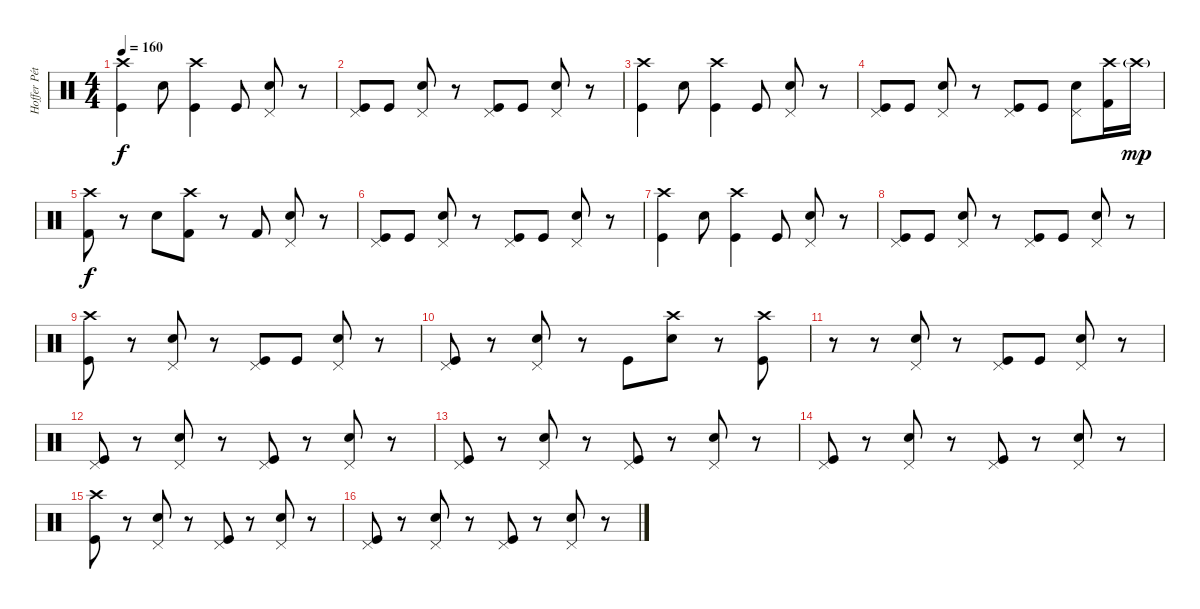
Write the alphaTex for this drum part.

\track ("Hoffer Péter" "Hoffer Pét") {instrument percussion}
\staff {score}
\articulation defaults
\ts (4 4)
\tempo 160
\clef neutral
\ks c
("Crash high (hit)" "Kick (hit)").4{dy f} "Electric Snare (hit)".8 ("Crash high (hit)" "Kick (hit)").4 "Kick (hit)".8 ("Pedal Hi-Hat (hit)" "Electric Snare (hit)").8 r.8 |
("Pedal Hi-Hat (hit)" "Kick (hit)").8 "Kick (hit)".8 ("Pedal Hi-Hat (hit)" "Electric Snare (hit)").8 r.8 ("Pedal Hi-Hat (hit)" "Kick (hit)").8 "Kick (hit)".8 ("Pedal Hi-Hat (hit)" "Electric Snare (hit)").8 r.8 |
("Crash high (hit)" "Kick (hit)").4 "Electric Snare (hit)".8 ("Crash high (hit)" "Kick (hit)").4 "Kick (hit)".8 ("Pedal Hi-Hat (hit)" "Electric Snare (hit)").8 r.8 |
("Pedal Hi-Hat (hit)" "Kick (hit)").8 "Kick (hit)".8 ("Pedal Hi-Hat (hit)" "Electric Snare (hit)").8 r.8 ("Pedal Hi-Hat (hit)" "Kick (hit)").8 "Kick (hit)".8 ("Pedal Hi-Hat (hit)" "Electric Snare (hit)").8 ("Crash high (hit)" "Kick (hit) 2").16 "Crash high (hit)"{g}.16{dy mp} |
("Crash high (hit)" "Kick (hit) 2").8{dy f} r.8 "Electric Snare (hit)".8 ("Crash high (hit)" "Kick (hit) 2").8 r.8 "Kick (hit) 2".8 ("Pedal Hi-Hat (hit)" "Electric Snare (hit)").8 r.8 |
("Pedal Hi-Hat (hit)" "Kick (hit)").8 "Kick (hit)".8 ("Pedal Hi-Hat (hit)" "Electric Snare (hit)").8 r.8 ("Pedal Hi-Hat (hit)" "Kick (hit)").8 "Kick (hit)".8 ("Pedal Hi-Hat (hit)" "Electric Snare (hit)").8 r.8 |
("Crash high (hit)" "Kick (hit)").4 "Electric Snare (hit)".8 ("Crash high (hit)" "Kick (hit)").4 "Kick (hit)".8 ("Pedal Hi-Hat (hit)" "Electric Snare (hit)").8 r.8 |
("Pedal Hi-Hat (hit)" "Kick (hit)").8 "Kick (hit)".8 ("Pedal Hi-Hat (hit)" "Electric Snare (hit)").8 r.8 ("Pedal Hi-Hat (hit)" "Kick (hit)").8 "Kick (hit)".8 ("Pedal Hi-Hat (hit)" "Electric Snare (hit)").8 r.8 |
("Crash high (hit)" "Kick (hit)").8 r.8 ("Pedal Hi-Hat (hit)" "Electric Snare (hit)").8 r.8 ("Pedal Hi-Hat (hit)" "Kick (hit)").8 "Kick (hit)".8 ("Pedal Hi-Hat (hit)" "Electric Snare (hit)").8 r.8 |
("Pedal Hi-Hat (hit)" "Kick (hit)").8 r.8 ("Pedal Hi-Hat (hit)" "Electric Snare (hit)").8 r.8 "Kick (hit)".8 ("Crash high (hit)" "Electric Snare (hit)").8 r.8 ("Crash high (hit)" "Kick (hit)").8 |
r.8 r.8 ("Pedal Hi-Hat (hit)" "Electric Snare (hit)").8 r.8 ("Pedal Hi-Hat (hit)" "Kick (hit)").8 "Kick (hit)".8 ("Pedal Hi-Hat (hit)" "Electric Snare (hit)").8 r.8 |
("Pedal Hi-Hat (hit)" "Kick (hit)").8 r.8 ("Pedal Hi-Hat (hit)" "Electric Snare (hit)").8 r.8 ("Pedal Hi-Hat (hit)" "Kick (hit)").8 r.8 ("Pedal Hi-Hat (hit)" "Electric Snare (hit)").8 r.8 |
("Pedal Hi-Hat (hit)" "Kick (hit)").8 r.8 ("Pedal Hi-Hat (hit)" "Electric Snare (hit)").8 r.8 ("Pedal Hi-Hat (hit)" "Kick (hit)").8 r.8 ("Pedal Hi-Hat (hit)" "Electric Snare (hit)").8 r.8 |
("Pedal Hi-Hat (hit)" "Kick (hit)").8 r.8 ("Pedal Hi-Hat (hit)" "Electric Snare (hit)").8 r.8 ("Pedal Hi-Hat (hit)" "Kick (hit)").8 r.8 ("Pedal Hi-Hat (hit)" "Electric Snare (hit)").8 r.8 |
("Crash high (hit)" "Kick (hit)").8 r.8 ("Pedal Hi-Hat (hit)" "Electric Snare (hit)").8 r.8 ("Pedal Hi-Hat (hit)" "Kick (hit)").8 r.8 ("Pedal Hi-Hat (hit)" "Electric Snare (hit)").8 r.8 |
("Pedal Hi-Hat (hit)" "Kick (hit)").8 r.8 ("Pedal Hi-Hat (hit)" "Electric Snare (hit)").8 r.8 ("Pedal Hi-Hat (hit)" "Kick (hit)").8 r.8 ("Pedal Hi-Hat (hit)" "Electric Snare (hit)").8 r.8
